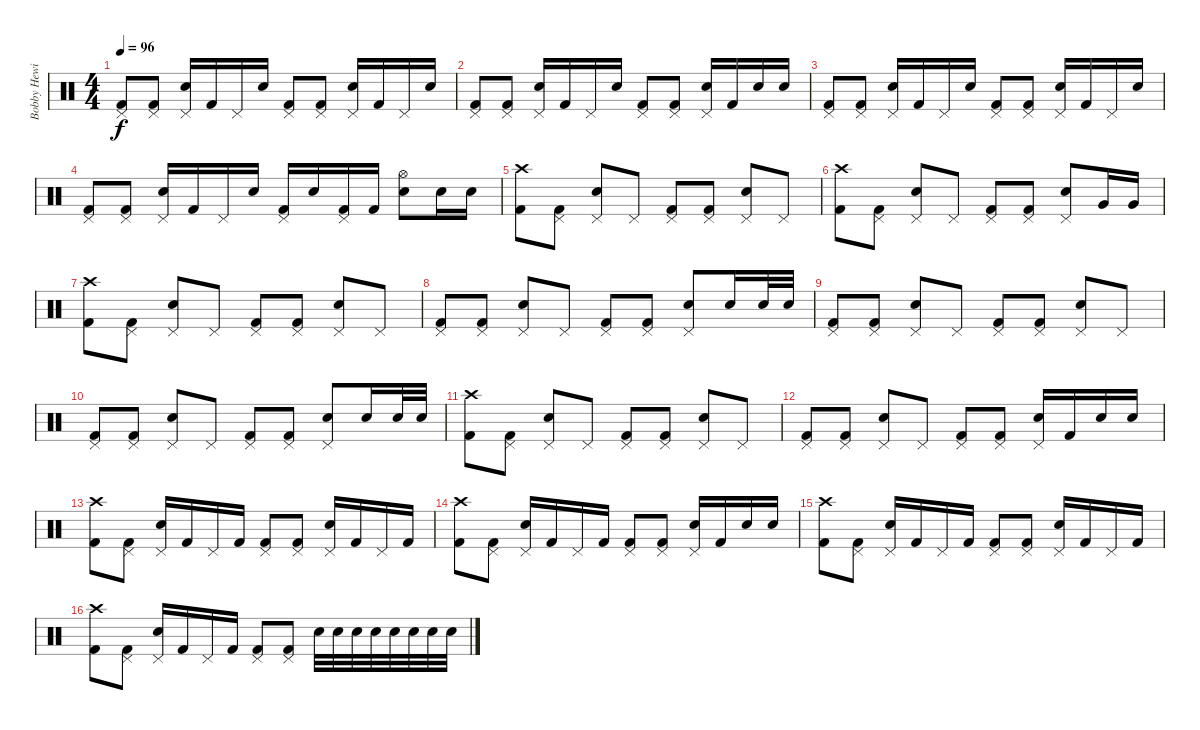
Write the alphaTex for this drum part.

\track ("Bobby Hewitt (Elec. Drums)" "Bobby Hewi") {instrument percussion}
\staff {score}
\articulation defaults
\ts (4 4)
\tempo 96
\clef neutral
\ks c
("Pedal Hi-Hat (hit)" "Kick (hit) 2").8{dy f} ("Pedal Hi-Hat (hit)" "Kick (hit) 2").8 ("Pedal Hi-Hat (hit)" "Electric Snare (hit)").16 "Kick (hit) 2".16 "Pedal Hi-Hat (hit)".16 "Electric Snare (hit)".16 ("Pedal Hi-Hat (hit)" "Kick (hit) 2").8 ("Pedal Hi-Hat (hit)" "Kick (hit) 2").8 ("Pedal Hi-Hat (hit)" "Electric Snare (hit)").16 "Kick (hit) 2".16 "Pedal Hi-Hat (hit)".16 "Electric Snare (hit)".16 |
("Pedal Hi-Hat (hit)" "Kick (hit) 2").8 ("Pedal Hi-Hat (hit)" "Kick (hit) 2").8 ("Pedal Hi-Hat (hit)" "Electric Snare (hit)").16 "Kick (hit) 2".16 "Pedal Hi-Hat (hit)".16 "Electric Snare (hit)".16 ("Pedal Hi-Hat (hit)" "Kick (hit) 2").8 ("Pedal Hi-Hat (hit)" "Kick (hit) 2").8 ("Pedal Hi-Hat (hit)" "Electric Snare (hit)").16 "Kick (hit) 2".16 "Electric Snare (hit)".16 "Electric Snare (hit)".16 |
("Pedal Hi-Hat (hit)" "Kick (hit) 2").8 ("Pedal Hi-Hat (hit)" "Kick (hit) 2").8 ("Pedal Hi-Hat (hit)" "Electric Snare (hit)").16 "Kick (hit) 2".16 "Pedal Hi-Hat (hit)".16 "Electric Snare (hit)".16 ("Pedal Hi-Hat (hit)" "Kick (hit) 2").8 ("Pedal Hi-Hat (hit)" "Kick (hit) 2").8 ("Pedal Hi-Hat (hit)" "Electric Snare (hit)").16 "Kick (hit) 2".16 "Pedal Hi-Hat (hit)".16 "Electric Snare (hit)".16 |
("Pedal Hi-Hat (hit)" "Kick (hit) 2").8 ("Pedal Hi-Hat (hit)" "Kick (hit) 2").8 ("Pedal Hi-Hat (hit)" "Electric Snare (hit)").16 "Kick (hit) 2".16 "Pedal Hi-Hat (hit)".16 "Electric Snare (hit)".16 ("Pedal Hi-Hat (hit)" "Kick (hit) 2").16 "Electric Snare (hit)".16 ("Pedal Hi-Hat (hit)" "Kick (hit) 2").16 "Kick (hit) 2".16 ("Hi-Hat (open)" "Electric Snare (hit)").8 "Electric Snare (hit)".16 "Electric Snare (hit)".16 |
("Crash high (hit)" "Kick (hit) 2").8 ("Pedal Hi-Hat (hit)" "Kick (hit) 2").8 ("Pedal Hi-Hat (hit)" "Electric Snare (hit)").8 "Pedal Hi-Hat (hit)".8 ("Pedal Hi-Hat (hit)" "Kick (hit) 2").8 ("Pedal Hi-Hat (hit)" "Kick (hit) 2").8 ("Pedal Hi-Hat (hit)" "Electric Snare (hit)").8 "Pedal Hi-Hat (hit)".8 |
("Crash high (hit)" "Kick (hit) 2").8 ("Pedal Hi-Hat (hit)" "Kick (hit) 2").8 ("Pedal Hi-Hat (hit)" "Electric Snare (hit)").8 "Pedal Hi-Hat (hit)".8 ("Pedal Hi-Hat (hit)" "Kick (hit) 2").8 ("Pedal Hi-Hat (hit)" "Kick (hit) 2").8 ("Pedal Hi-Hat (hit)" "Electric Snare (hit)").8 "Very Low Tom (hit)".16 "Very Low Tom (hit)".16 |
("Crash high (hit)" "Kick (hit) 2").8 ("Pedal Hi-Hat (hit)" "Kick (hit) 2").8 ("Pedal Hi-Hat (hit)" "Electric Snare (hit)").8 "Pedal Hi-Hat (hit)".8 ("Pedal Hi-Hat (hit)" "Kick (hit) 2").8 ("Pedal Hi-Hat (hit)" "Kick (hit) 2").8 ("Pedal Hi-Hat (hit)" "Electric Snare (hit)").8 "Pedal Hi-Hat (hit)".8 |
("Pedal Hi-Hat (hit)" "Kick (hit) 2").8 ("Pedal Hi-Hat (hit)" "Kick (hit) 2").8 ("Pedal Hi-Hat (hit)" "Electric Snare (hit)").8 "Pedal Hi-Hat (hit)".8 ("Pedal Hi-Hat (hit)" "Kick (hit) 2").8 ("Pedal Hi-Hat (hit)" "Kick (hit) 2").8 ("Pedal Hi-Hat (hit)" "Electric Snare (hit)").8 "Electric Snare (hit)".16 "Electric Snare (hit)".32 "Electric Snare (hit)".32 |
("Pedal Hi-Hat (hit)" "Kick (hit) 2").8 ("Pedal Hi-Hat (hit)" "Kick (hit) 2").8 ("Pedal Hi-Hat (hit)" "Electric Snare (hit)").8 "Pedal Hi-Hat (hit)".8 ("Pedal Hi-Hat (hit)" "Kick (hit) 2").8 ("Pedal Hi-Hat (hit)" "Kick (hit) 2").8 ("Pedal Hi-Hat (hit)" "Electric Snare (hit)").8 "Pedal Hi-Hat (hit)".8 |
("Pedal Hi-Hat (hit)" "Kick (hit) 2").8 ("Pedal Hi-Hat (hit)" "Kick (hit) 2").8 ("Pedal Hi-Hat (hit)" "Electric Snare (hit)").8 "Pedal Hi-Hat (hit)".8 ("Pedal Hi-Hat (hit)" "Kick (hit) 2").8 ("Pedal Hi-Hat (hit)" "Kick (hit) 2").8 ("Pedal Hi-Hat (hit)" "Electric Snare (hit)").8 "Electric Snare (hit)".16 "Electric Snare (hit)".32 "Electric Snare (hit)".32 |
("Crash high (hit)" "Kick (hit) 2").8 ("Pedal Hi-Hat (hit)" "Kick (hit) 2").8 ("Pedal Hi-Hat (hit)" "Electric Snare (hit)").8 "Pedal Hi-Hat (hit)".8 ("Pedal Hi-Hat (hit)" "Kick (hit) 2").8 ("Pedal Hi-Hat (hit)" "Kick (hit) 2").8 ("Pedal Hi-Hat (hit)" "Electric Snare (hit)").8 "Pedal Hi-Hat (hit)".8 |
("Pedal Hi-Hat (hit)" "Kick (hit) 2").8 ("Pedal Hi-Hat (hit)" "Kick (hit) 2").8 ("Pedal Hi-Hat (hit)" "Electric Snare (hit)").8 "Pedal Hi-Hat (hit)".8 ("Pedal Hi-Hat (hit)" "Kick (hit) 2").8 ("Pedal Hi-Hat (hit)" "Kick (hit) 2").8 ("Pedal Hi-Hat (hit)" "Electric Snare (hit)").16 "Kick (hit) 2".16 "Electric Snare (hit)".16 "Electric Snare (hit)".16 |
("Crash high (hit)" "Kick (hit) 2").8 ("Pedal Hi-Hat (hit)" "Kick (hit) 2").8 ("Pedal Hi-Hat (hit)" "Electric Snare (hit)").16 "Kick (hit) 2".16 "Pedal Hi-Hat (hit)".16 "Kick (hit) 2".16 ("Pedal Hi-Hat (hit)" "Kick (hit) 2").8 ("Pedal Hi-Hat (hit)" "Kick (hit) 2").8 ("Pedal Hi-Hat (hit)" "Electric Snare (hit)").16 "Kick (hit) 2".16 "Pedal Hi-Hat (hit)".16 "Kick (hit) 2".16 |
("Crash high (hit)" "Kick (hit) 2").8 ("Pedal Hi-Hat (hit)" "Kick (hit) 2").8 ("Pedal Hi-Hat (hit)" "Electric Snare (hit)").16 "Kick (hit) 2".16 "Pedal Hi-Hat (hit)".16 "Kick (hit) 2".16 ("Pedal Hi-Hat (hit)" "Kick (hit) 2").8 ("Pedal Hi-Hat (hit)" "Kick (hit) 2").8 ("Pedal Hi-Hat (hit)" "Electric Snare (hit)").16 "Kick (hit) 2".16 "Electric Snare (hit)".16 "Electric Snare (hit)".16 |
("Crash high (hit)" "Kick (hit) 2").8 ("Pedal Hi-Hat (hit)" "Kick (hit) 2").8 ("Pedal Hi-Hat (hit)" "Electric Snare (hit)").16 "Kick (hit) 2".16 "Pedal Hi-Hat (hit)".16 "Kick (hit) 2".16 ("Pedal Hi-Hat (hit)" "Kick (hit) 2").8 ("Pedal Hi-Hat (hit)" "Kick (hit) 2").8 ("Pedal Hi-Hat (hit)" "Electric Snare (hit)").16 "Kick (hit) 2".16 "Pedal Hi-Hat (hit)".16 "Kick (hit) 2".16 |
("Crash high (hit)" "Kick (hit) 2").8 ("Pedal Hi-Hat (hit)" "Kick (hit) 2").8 ("Pedal Hi-Hat (hit)" "Electric Snare (hit)").16 "Kick (hit) 2".16 "Pedal Hi-Hat (hit)".16 "Kick (hit) 2".16 ("Pedal Hi-Hat (hit)" "Kick (hit) 2").8 ("Pedal Hi-Hat (hit)" "Kick (hit) 2").8 "Electric Snare (hit)".32 "Electric Snare (hit)".32 "Electric Snare (hit)".32 "Electric Snare (hit)".32 "Electric Snare (hit)".32 "Electric Snare (hit)".32 "Electric Snare (hit)".32 "Electric Snare (hit)".32
